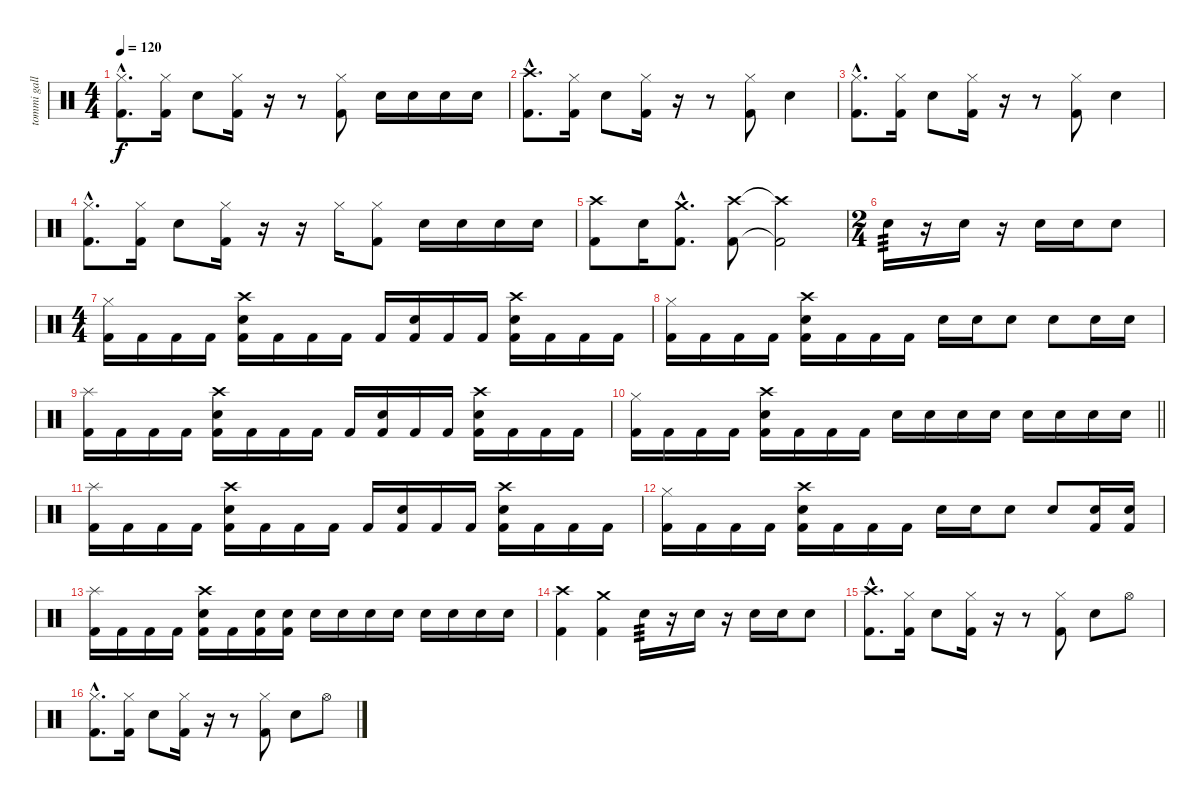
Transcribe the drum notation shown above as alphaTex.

\track ("tommi gallo" "tommi gall") {instrument percussion}
\staff {score}
\articulation defaults
\ts (4 4)
\tempo 120
\clef neutral
\ks c
("Hi-Hat (closed)"{hac} "Kick (hit) 2"{hac}).8{d dy f} ("Hi-Hat (closed)" "Kick (hit) 2").16 "Snare (hit) 2".8 ("Hi-Hat (closed)" "Kick (hit) 2").16 r.16 r.8 ("Hi-Hat (closed)" "Kick (hit) 2").8 "Snare (hit) 2".16 "Snare (hit) 2".16 "Snare (hit) 2".16 "Snare (hit) 2".16 |
("Crash high (hit)"{hac} "Kick (hit) 2"{hac}).8{d} ("Hi-Hat (closed)" "Kick (hit) 2").16 "Snare (hit) 2".8 ("Hi-Hat (closed)" "Kick (hit) 2").16 r.16 r.8 ("Hi-Hat (closed)" "Kick (hit) 2").8 "Snare (hit) 2".4 |
("Hi-Hat (closed)"{hac} "Kick (hit) 2"{hac}).8{d} ("Hi-Hat (closed)" "Kick (hit) 2").16 "Snare (hit) 2".8 ("Hi-Hat (closed)" "Kick (hit) 2").16 r.16 r.8 ("Hi-Hat (closed)" "Kick (hit) 2").8 "Snare (hit) 2".4 |
("Hi-Hat (closed)"{hac} "Kick (hit) 2"{hac}).8{d} ("Hi-Hat (closed)" "Kick (hit) 2").16 "Snare (hit) 2".8 ("Hi-Hat (closed)" "Kick (hit) 2").16 r.16 r.16 "Hi-Hat (closed)".16 ("Hi-Hat (closed)" "Kick (hit) 2").8 "Snare (hit) 2".16 "Snare (hit) 2".16 "Snare (hit) 2".16 "Snare (hit) 2".16 |
("Crash high (hit)" "Kick (hit) 2").8 "Snare (hit) 2".16 ("Crash medium (hit)"{hac} "Kick (hit) 2"{hac}).8{d} ("Crash high (hit)" "Kick (hit) 2").8 ("Crash high (hit)"{t} "Kick (hit) 2"{t}).2 |
\ts (2 4)
"Snare (hit) 2".16{tp 3} r.16 "Snare (hit) 2".16 r.16 "Snare (hit) 2".16 "Snare (hit) 2".16 "Snare (hit) 2".8 |
\ts (4 4)
("Hi-Hat (closed)" "Kick (hit) 2").16 "Kick (hit) 2".16 "Kick (hit) 2".16 "Kick (hit) 2".16 ("Crash high (hit)" "Snare (hit) 2" "Kick (hit) 2").16 "Kick (hit) 2".16 "Kick (hit) 2".16 "Kick (hit) 2".16 "Kick (hit) 2".16 ("Snare (hit) 2" "Kick (hit) 2").16 "Kick (hit) 2".16 "Kick (hit) 2".16 ("Crash high (hit)" "Snare (hit) 2" "Kick (hit) 2").16 "Kick (hit) 2".16 "Kick (hit) 2".16 "Kick (hit) 2".16 |
("Hi-Hat (closed)" "Kick (hit) 2").16 "Kick (hit) 2".16 "Kick (hit) 2".16 "Kick (hit) 2".16 ("Crash high (hit)" "Snare (hit) 2" "Kick (hit) 2").16 "Kick (hit) 2".16 "Kick (hit) 2".16 "Kick (hit) 2".16 "Snare (hit) 2".16 "Snare (hit) 2".16 "Snare (hit) 2".8 "Snare (hit) 2".8 "Snare (hit) 2".16 "Snare (hit) 2".16 |
("Splash (hit)" "Kick (hit) 2").16 "Kick (hit) 2".16 "Kick (hit) 2".16 "Kick (hit) 2".16 ("Crash high (hit)" "Snare (hit) 2" "Kick (hit) 2").16 "Kick (hit) 2".16 "Kick (hit) 2".16 "Kick (hit) 2".16 "Kick (hit) 2".16 ("Snare (hit) 2" "Kick (hit) 2").16 "Kick (hit) 2".16 "Kick (hit) 2".16 ("Crash high (hit)" "Snare (hit) 2" "Kick (hit) 2").16 "Kick (hit) 2".16 "Kick (hit) 2".16 "Kick (hit) 2".16 |
\barLineRight lightlight
("Hi-Hat (closed)" "Kick (hit) 2").16 "Kick (hit) 2".16 "Kick (hit) 2".16 "Kick (hit) 2".16 ("Crash high (hit)" "Snare (hit) 2" "Kick (hit) 2").16 "Kick (hit) 2".16 "Kick (hit) 2".16 "Kick (hit) 2".16 "Snare (hit) 2".16 "Snare (hit) 2".16 "Snare (hit) 2".16 "Snare (hit) 2".16 "Snare (hit) 2".16 "Snare (hit) 2".16 "Snare (hit) 2".16 "Snare (hit) 2".16 |
("Splash (hit)" "Kick (hit) 2").16 "Kick (hit) 2".16 "Kick (hit) 2".16 "Kick (hit) 2".16 ("Crash high (hit)" "Snare (hit) 2" "Kick (hit) 2").16 "Kick (hit) 2".16 "Kick (hit) 2".16 "Kick (hit) 2".16 "Kick (hit) 2".16 ("Snare (hit) 2" "Kick (hit) 2").16 "Kick (hit) 2".16 "Kick (hit) 2".16 ("Crash high (hit)" "Snare (hit) 2" "Kick (hit) 2").16 "Kick (hit) 2".16 "Kick (hit) 2".16 "Kick (hit) 2".16 |
("Hi-Hat (closed)" "Kick (hit) 2").16 "Kick (hit) 2".16 "Kick (hit) 2".16 "Kick (hit) 2".16 ("Crash high (hit)" "Snare (hit) 2" "Kick (hit) 2").16 "Kick (hit) 2".16 "Kick (hit) 2".16 "Kick (hit) 2".16 "Snare (hit) 2".16 "Snare (hit) 2".16 "Snare (hit) 2".8 "Snare (hit) 2".8 ("Snare (hit) 2" "Kick (hit) 2").16 ("Snare (hit) 2" "Kick (hit) 2").16 |
("Splash (hit)" "Kick (hit) 2").16 "Kick (hit) 2".16 "Kick (hit) 2".16 "Kick (hit) 2".16 ("Crash high (hit)" "Snare (hit) 2" "Kick (hit) 2").16 "Kick (hit) 2".16 ("Snare (hit) 2" "Kick (hit) 2").16 ("Snare (hit) 2" "Kick (hit) 2").16 "Snare (hit) 2".16 "Snare (hit) 2".16 "Snare (hit) 2".16 "Snare (hit) 2".16 "Snare (hit) 2".16 "Snare (hit) 2".16 "Snare (hit) 2".16 "Snare (hit) 2".16 |
("Crash high (hit)" "Kick (hit) 2").4 ("Crash medium (hit)" "Kick (hit) 2").4 "Snare (hit) 2".16{tp 3} r.16 "Snare (hit) 2".16 r.16 "Snare (hit) 2".16 "Snare (hit) 2".16 "Snare (hit) 2".8 |
("Crash high (hit)"{hac} "Kick (hit) 2"{hac}).8{d} ("Hi-Hat (closed)" "Kick (hit) 2").16 "Snare (hit) 2".8 ("Hi-Hat (closed)" "Kick (hit) 2").16 r.16 r.8 ("Hi-Hat (closed)" "Kick (hit) 2").8 "Snare (hit) 2".8 "Hi-Hat (open)".8 |
("Hi-Hat (closed)"{hac} "Kick (hit) 2"{hac}).8{d} ("Hi-Hat (closed)" "Kick (hit) 2").16 "Snare (hit) 2".8 ("Hi-Hat (closed)" "Kick (hit) 2").16 r.16 r.8 ("Hi-Hat (closed)" "Kick (hit) 2").8 "Snare (hit) 2".8 "Hi-Hat (open)".8
